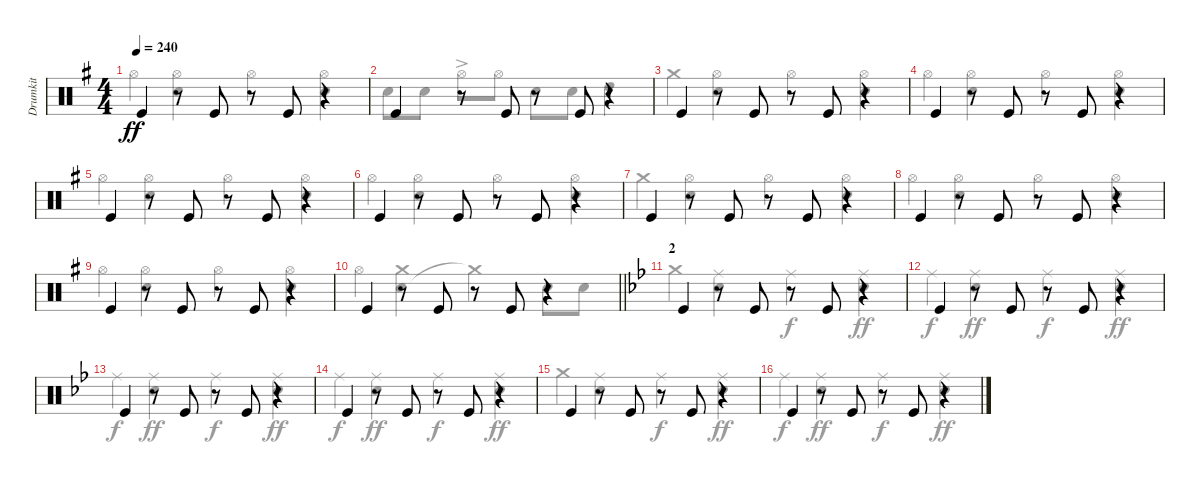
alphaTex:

\track ("Drumkit" "Drumkit") {instrument percussion}
\staff {score}
\articulation defaults
\voice
\ts (4 4)
\tempo 240
\clef neutral
\ks g "Kick (hit)".4{dy ff}
r.8 "Kick (hit)".8 r.8 "Kick (hit)".8 r.4 |
"Kick (hit)".4 r.8 "Kick (hit)".8 r.8 "Kick (hit)".8 r.4 |
"Kick (hit)".4 r.8 "Kick (hit)".8 r.8 "Kick (hit)".8 r.4 |
"Kick (hit)".4 r.8 "Kick (hit)".8 r.8 "Kick (hit)".8 r.4 |
"Kick (hit)".4 r.8 "Kick (hit)".8 r.8 "Kick (hit)".8 r.4 |
"Kick (hit)".4 r.8 "Kick (hit)".8 r.8 "Kick (hit)".8 r.4 |
"Kick (hit)".4 r.8 "Kick (hit)".8 r.8 "Kick (hit)".8 r.4 |
"Kick (hit)".4 r.8 "Kick (hit)".8 r.8 "Kick (hit)".8 r.4 |
"Kick (hit)".4 r.8 "Kick (hit)".8 r.8 "Kick (hit)".8 r.4 |
\barLineRight lightlight "Kick (hit)".4
r.8 "Kick (hit)".8 r.8 "Kick (hit)".8 r.4 |
\section ("" "2")
\ks bb "Kick (hit)".4
r.8 "Kick (hit)".8 r.8 "Kick (hit)".8 r.4 |
"Kick (hit)".4 r.8 "Kick (hit)".8 r.8 "Kick (hit)".8 r.4 |
"Kick (hit)".4 r.8 "Kick (hit)".8 r.8 "Kick (hit)".8 r.4 |
"Kick (hit)".4 r.8 "Kick (hit)".8 r.8 "Kick (hit)".8 r.4 |
"Kick (hit)".4 r.8 "Kick (hit)".8 r.8 "Kick (hit)".8 r.4 |
"Kick (hit)".4 r.8 "Kick (hit)".8 r.8 "Kick (hit)".8 r.4
\voice
\clef neutral
\ottava regular
\simile none
\ks g "Hi-Hat (open)".4{dy ff}
("Hi-Hat (open)" "Snare (hit) 2").4 "Hi-Hat (open)".4 ("Hi-Hat (open)" "Snare (hit) 2").4 |
"Snare (hit) 2".8 "Snare (hit) 2".8 "Hi-Hat (open)"{ac}.8 "Hi-Hat (open)".8 "Snare (hit) 2".8 "Snare (hit) 2".8 "High Tom (hit)".4 |
"Crash medium (hit)".4 ("Hi-Hat (open)" "Snare (hit) 2").4 "Hi-Hat (open)".4 ("Hi-Hat (open)" "Snare (hit) 2").4 |
"Hi-Hat (open)".4 ("Hi-Hat (open)" "Snare (hit) 2").4 "Hi-Hat (open)".4 ("Hi-Hat (open)" "Snare (hit) 2").4 |
"Hi-Hat (open)".4 ("Hi-Hat (open)" "Snare (hit) 2").4 "Hi-Hat (open)".4 ("Hi-Hat (open)" "Snare (hit) 2").4 |
"Hi-Hat (open)".4 ("Hi-Hat (open)" "Snare (hit) 2").4 "Hi-Hat (open)".4 ("Hi-Hat (open)" "Snare (hit) 2").4 |
"Crash medium (hit)".4 ("Hi-Hat (open)" "Snare (hit) 2").4 "Hi-Hat (open)".4 ("Hi-Hat (open)" "Snare (hit) 2").4 |
"Hi-Hat (open)".4 ("Hi-Hat (open)" "Snare (hit) 2").4 "Hi-Hat (open)".4 ("Hi-Hat (open)" "Snare (hit) 2").4 |
"Hi-Hat (open)".4 ("Hi-Hat (open)" "Snare (hit) 2").4 "Hi-Hat (open)".4 ("Hi-Hat (open)" "Snare (hit) 2").4 |
\barLineRight lightlight "Hi-Hat (open)".4
("Snare (hit) 2" "Crash medium (hit)").4 "Crash medium (hit)"{t}.4 "Snare (hit) 2".8 "Snare (hit) 2".8 |
\ks bb "Crash medium (hit)".4
("Ride (middle)" "Snare (hit) 2").4 "Ride (middle)".4{dy f} ("Ride (middle)" "Snare (hit) 2").4{dy ff} |
"Ride (middle)".4{dy f} ("Ride (middle)" "Snare (hit) 2").4{dy ff} "Ride (middle)".4{dy f} ("Ride (middle)" "Snare (hit) 2").4{dy ff} |
"Ride (middle)".4{dy f} ("Ride (middle)" "Snare (hit) 2").4{dy ff} "Ride (middle)".4{dy f} ("Ride (middle)" "Snare (hit) 2").4{dy ff} |
"Ride (middle)".4{dy f} ("Ride (middle)" "Snare (hit) 2").4{dy ff} "Ride (middle)".4{dy f} ("Ride (middle)" "Snare (hit) 2").4{dy ff} |
"Crash medium (hit)".4 ("Ride (middle)" "Snare (hit) 2").4 "Ride (middle)".4{dy f} ("Ride (middle)" "Snare (hit) 2").4{dy ff} |
"Ride (middle)".4{dy f} ("Ride (middle)" "Snare (hit) 2").4{dy ff} "Ride (middle)".4{dy f} ("Ride (middle)" "Snare (hit) 2").4{dy ff}
